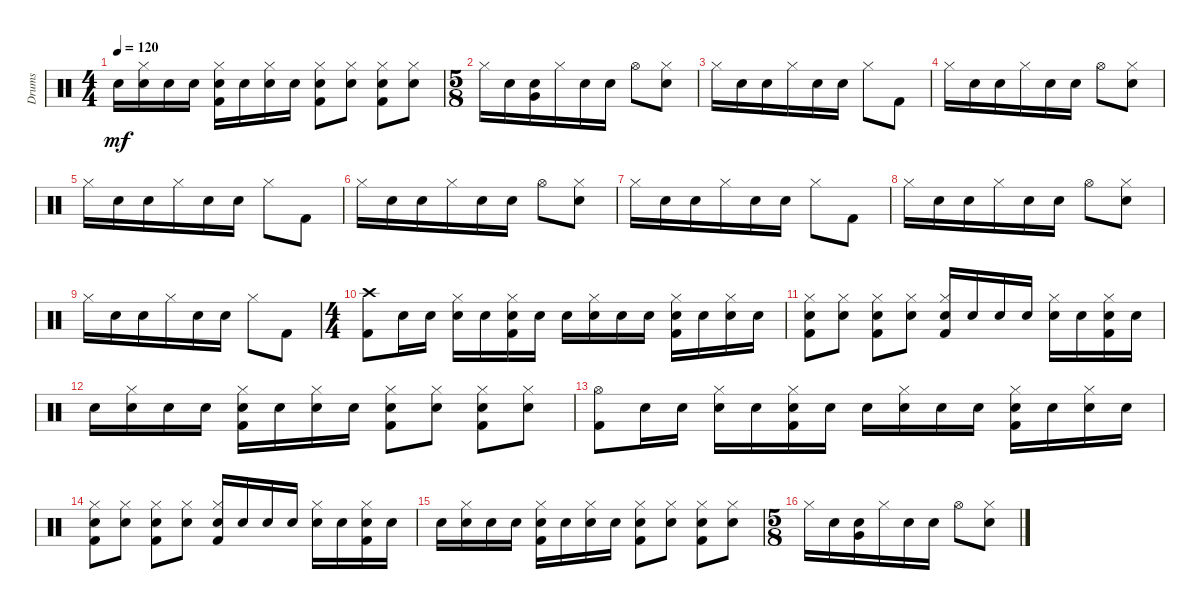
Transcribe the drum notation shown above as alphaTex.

\track ("Drums" "Drums") {instrument percussion}
\staff {score}
\articulation defaults
\ts (4 4)
\tempo 120
\clef neutral
\ks c "Electric Snare (hit)".16{dy mf}
("Electric Snare (hit)" "Hi-Hat (closed)").16 "Electric Snare (hit)".16 "Electric Snare (hit)".16 ("Kick (hit) 2" "Electric Snare (hit)" "Hi-Hat (closed)").16 "Electric Snare (hit)".16 ("Electric Snare (hit)" "Hi-Hat (closed)").16 "Electric Snare (hit)".16 ("Kick (hit) 2" "Electric Snare (hit)" "Hi-Hat (closed)").8 ("Electric Snare (hit)" "Hi-Hat (closed)").8 ("Kick (hit) 2" "Electric Snare (hit)" "Hi-Hat (closed)").8 ("Electric Snare (hit)" "Hi-Hat (closed)").8 |
\ts (5 8)
"Hi-Hat (closed)".16 "Snare (hit) 2".16 ("Snare (hit) 2" "Very Low Tom (hit)").16 "Hi-Hat (closed)".16 "Snare (hit) 2".16 "Snare (hit) 2".16 "Hi-Hat (open)".8 ("Snare (hit) 2" "Hi-Hat (closed)").8 |
"Hi-Hat (closed)".16 "Snare (hit) 2".16 "Snare (hit) 2".16 "Hi-Hat (closed)".16 "Snare (hit) 2".16 "Snare (hit) 2".16 "Hi-Hat (closed)".8 "Kick (hit) 2".8 |
"Hi-Hat (closed)".16 "Snare (hit) 2".16 "Snare (hit) 2".16 "Hi-Hat (closed)".16 "Snare (hit) 2".16 "Snare (hit) 2".16 "Hi-Hat (open)".8 ("Snare (hit) 2" "Hi-Hat (closed)").8 |
"Hi-Hat (closed)".16 "Snare (hit) 2".16 "Snare (hit) 2".16 "Hi-Hat (closed)".16 "Snare (hit) 2".16 "Snare (hit) 2".16 "Hi-Hat (closed)".8 "Kick (hit) 2".8 |
"Hi-Hat (closed)".16 "Snare (hit) 2".16 "Snare (hit) 2".16 "Hi-Hat (closed)".16 "Snare (hit) 2".16 "Snare (hit) 2".16 "Hi-Hat (open)".8 ("Snare (hit) 2" "Hi-Hat (closed)").8 |
"Hi-Hat (closed)".16 "Snare (hit) 2".16 "Snare (hit) 2".16 "Hi-Hat (closed)".16 "Snare (hit) 2".16 "Snare (hit) 2".16 "Hi-Hat (closed)".8 "Kick (hit) 2".8 |
"Hi-Hat (closed)".16 "Snare (hit) 2".16 "Snare (hit) 2".16 "Hi-Hat (closed)".16 "Snare (hit) 2".16 "Snare (hit) 2".16 "Hi-Hat (open)".8 ("Snare (hit) 2" "Hi-Hat (closed)").8 |
"Hi-Hat (closed)".16 "Snare (hit) 2".16 "Snare (hit) 2".16 "Hi-Hat (closed)".16 "Snare (hit) 2".16 "Snare (hit) 2".16 "Hi-Hat (closed)".8 "Kick (hit) 2".8 |
\ts (4 4)
("Kick (hit) 2" "Crash high (hit)").8 "Electric Snare (hit)".16 "Electric Snare (hit)".16 ("Electric Snare (hit)" "Hi-Hat (closed)").16 "Electric Snare (hit)".16 ("Kick (hit) 2" "Electric Snare (hit)" "Hi-Hat (closed)").16 "Electric Snare (hit)".16 "Electric Snare (hit)".16 ("Electric Snare (hit)" "Hi-Hat (closed)").16 "Electric Snare (hit)".16 "Electric Snare (hit)".16 ("Kick (hit) 2" "Electric Snare (hit)" "Hi-Hat (closed)").16 "Electric Snare (hit)".16 ("Electric Snare (hit)" "Hi-Hat (closed)").16 "Electric Snare (hit)".16 |
("Kick (hit) 2" "Electric Snare (hit)" "Hi-Hat (closed)").8 ("Electric Snare (hit)" "Hi-Hat (closed)").8 ("Kick (hit) 2" "Electric Snare (hit)" "Hi-Hat (closed)").8 ("Electric Snare (hit)" "Hi-Hat (closed)").8 ("Kick (hit) 2" "Electric Snare (hit)" "Hi-Hat (closed)").16 "Electric Snare (hit)".16 "Electric Snare (hit)".16 "Electric Snare (hit)".16 ("Electric Snare (hit)" "Hi-Hat (closed)").16 "Electric Snare (hit)".16 ("Kick (hit) 2" "Electric Snare (hit)" "Hi-Hat (closed)").16 "Electric Snare (hit)".16 |
"Electric Snare (hit)".16 ("Electric Snare (hit)" "Hi-Hat (closed)").16 "Electric Snare (hit)".16 "Electric Snare (hit)".16 ("Kick (hit) 2" "Electric Snare (hit)" "Hi-Hat (closed)").16 "Electric Snare (hit)".16 ("Electric Snare (hit)" "Hi-Hat (closed)").16 "Electric Snare (hit)".16 ("Kick (hit) 2" "Electric Snare (hit)" "Hi-Hat (closed)").8 ("Electric Snare (hit)" "Hi-Hat (closed)").8 ("Kick (hit) 2" "Electric Snare (hit)" "Hi-Hat (closed)").8 ("Electric Snare (hit)" "Hi-Hat (closed)").8 |
("Kick (hit) 2" "Hi-Hat (open)").8 "Electric Snare (hit)".16 "Electric Snare (hit)".16 ("Electric Snare (hit)" "Hi-Hat (closed)").16 "Electric Snare (hit)".16 ("Kick (hit) 2" "Electric Snare (hit)" "Hi-Hat (closed)").16 "Electric Snare (hit)".16 "Electric Snare (hit)".16 ("Electric Snare (hit)" "Hi-Hat (closed)").16 "Electric Snare (hit)".16 "Electric Snare (hit)".16 ("Kick (hit) 2" "Electric Snare (hit)" "Hi-Hat (closed)").16 "Electric Snare (hit)".16 ("Electric Snare (hit)" "Hi-Hat (closed)").16 "Electric Snare (hit)".16 |
("Kick (hit) 2" "Electric Snare (hit)" "Hi-Hat (closed)").8 ("Electric Snare (hit)" "Hi-Hat (closed)").8 ("Kick (hit) 2" "Electric Snare (hit)" "Hi-Hat (closed)").8 ("Electric Snare (hit)" "Hi-Hat (closed)").8 ("Kick (hit) 2" "Electric Snare (hit)" "Hi-Hat (closed)").16 "Electric Snare (hit)".16 "Electric Snare (hit)".16 "Electric Snare (hit)".16 ("Electric Snare (hit)" "Hi-Hat (closed)").16 "Electric Snare (hit)".16 ("Kick (hit) 2" "Electric Snare (hit)" "Hi-Hat (closed)").16 "Electric Snare (hit)".16 |
"Electric Snare (hit)".16 ("Electric Snare (hit)" "Hi-Hat (closed)").16 "Electric Snare (hit)".16 "Electric Snare (hit)".16 ("Kick (hit) 2" "Electric Snare (hit)" "Hi-Hat (closed)").16 "Electric Snare (hit)".16 ("Electric Snare (hit)" "Hi-Hat (closed)").16 "Electric Snare (hit)".16 ("Kick (hit) 2" "Electric Snare (hit)" "Hi-Hat (closed)").8 ("Electric Snare (hit)" "Hi-Hat (closed)").8 ("Kick (hit) 2" "Electric Snare (hit)" "Hi-Hat (closed)").8 ("Electric Snare (hit)" "Hi-Hat (closed)").8 |
\ts (5 8)
"Hi-Hat (closed)".16 "Snare (hit) 2".16 ("Snare (hit) 2" "Very Low Tom (hit)").16 "Hi-Hat (closed)".16 "Snare (hit) 2".16 "Snare (hit) 2".16 "Hi-Hat (open)".8 ("Snare (hit) 2" "Hi-Hat (closed)").8
